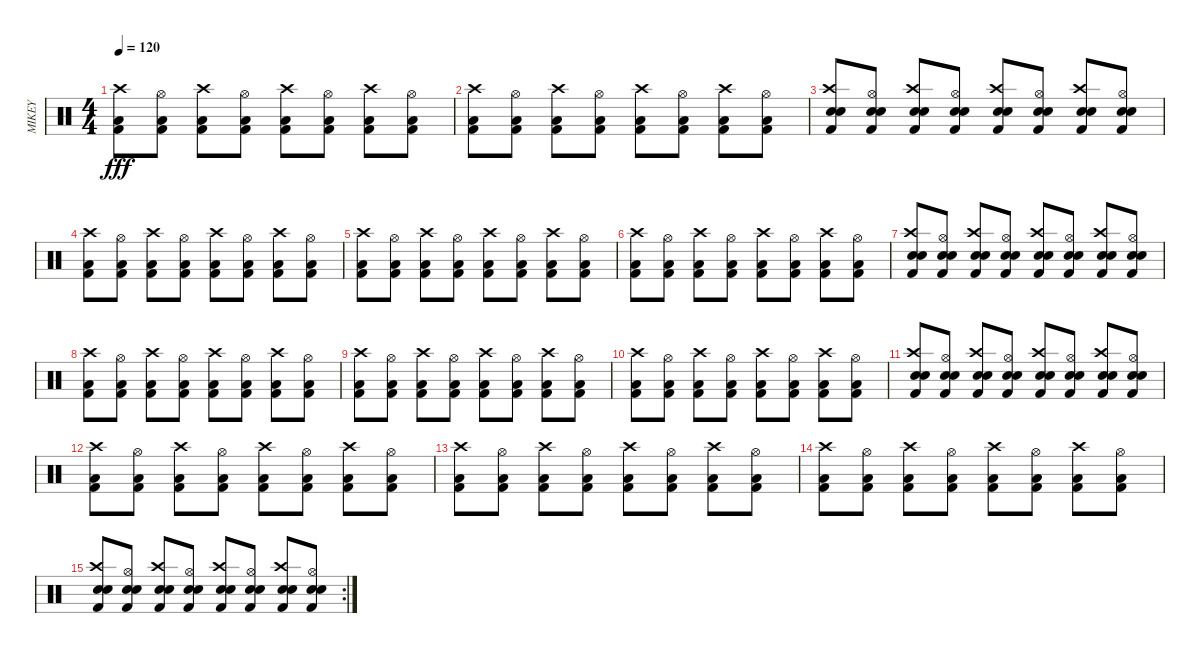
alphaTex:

\track ("MIKEY" "MIKEY") {instrument percussion}
\staff {score}
\articulation defaults
\ts (4 4)
\tempo 120
\clef neutral
\ks c
("Low Floor Tom (hit)" "Kick (hit) 2" "Crash high (hit)").8{dy fff} ("Low Floor Tom (hit)" "Hi-Hat (open)" "Kick (hit) 2").8 ("Low Floor Tom (hit)" "Kick (hit) 2" "Crash high (hit)").8 ("Low Floor Tom (hit)" "Hi-Hat (open)" "Kick (hit) 2").8 ("Low Floor Tom (hit)" "Kick (hit) 2" "Crash high (hit)").8 ("Low Floor Tom (hit)" "Hi-Hat (open)" "Kick (hit) 2").8 ("Low Floor Tom (hit)" "Kick (hit) 2" "Crash high (hit)").8 ("Low Floor Tom (hit)" "Hi-Hat (open)" "Kick (hit) 2").8 |
("Low Floor Tom (hit)" "Kick (hit) 2" "Crash high (hit)").8 ("Low Floor Tom (hit)" "Hi-Hat (open)" "Kick (hit) 2").8 ("Low Floor Tom (hit)" "Kick (hit) 2" "Crash high (hit)").8 ("Low Floor Tom (hit)" "Hi-Hat (open)" "Kick (hit) 2").8 ("Low Floor Tom (hit)" "Kick (hit) 2" "Crash high (hit)").8 ("Low Floor Tom (hit)" "Hi-Hat (open)" "Kick (hit) 2").8 ("Low Floor Tom (hit)" "Kick (hit) 2" "Crash high (hit)").8 ("Low Floor Tom (hit)" "Hi-Hat (open)" "Kick (hit) 2").8 |
("Electric Snare (hit)" "Kick (hit) 2" "Electric Snare (hit)" "Crash high (hit)").8 ("Electric Snare (hit)" "Kick (hit) 2" "Hi-Hat (open)" "Electric Snare (hit)").8 ("Electric Snare (hit)" "Kick (hit) 2" "Electric Snare (hit)" "Crash high (hit)").8 ("Electric Snare (hit)" "Kick (hit) 2" "Hi-Hat (open)" "Electric Snare (hit)").8 ("Electric Snare (hit)" "Kick (hit) 2" "Electric Snare (hit)" "Crash high (hit)").8 ("Electric Snare (hit)" "Kick (hit) 2" "Hi-Hat (open)" "Electric Snare (hit)").8 ("Electric Snare (hit)" "Kick (hit) 2" "Electric Snare (hit)" "Crash high (hit)").8 ("Electric Snare (hit)" "Kick (hit) 2" "Hi-Hat (open)" "Electric Snare (hit)").8 |
("Low Floor Tom (hit)" "Kick (hit) 2" "Crash high (hit)").8 ("Low Floor Tom (hit)" "Hi-Hat (open)" "Kick (hit) 2").8 ("Low Floor Tom (hit)" "Kick (hit) 2" "Crash high (hit)").8 ("Low Floor Tom (hit)" "Hi-Hat (open)" "Kick (hit) 2").8 ("Low Floor Tom (hit)" "Kick (hit) 2" "Crash high (hit)").8 ("Low Floor Tom (hit)" "Hi-Hat (open)" "Kick (hit) 2").8 ("Low Floor Tom (hit)" "Kick (hit) 2" "Crash high (hit)").8 ("Low Floor Tom (hit)" "Hi-Hat (open)" "Kick (hit) 2").8 |
("Low Floor Tom (hit)" "Kick (hit) 2" "Crash high (hit)").8 ("Low Floor Tom (hit)" "Hi-Hat (open)" "Kick (hit) 2").8 ("Low Floor Tom (hit)" "Kick (hit) 2" "Crash high (hit)").8 ("Low Floor Tom (hit)" "Hi-Hat (open)" "Kick (hit) 2").8 ("Low Floor Tom (hit)" "Kick (hit) 2" "Crash high (hit)").8 ("Low Floor Tom (hit)" "Hi-Hat (open)" "Kick (hit) 2").8 ("Low Floor Tom (hit)" "Kick (hit) 2" "Crash high (hit)").8 ("Low Floor Tom (hit)" "Hi-Hat (open)" "Kick (hit) 2").8 |
("Low Floor Tom (hit)" "Kick (hit) 2" "Crash high (hit)").8 ("Low Floor Tom (hit)" "Hi-Hat (open)" "Kick (hit) 2").8 ("Low Floor Tom (hit)" "Kick (hit) 2" "Crash high (hit)").8 ("Low Floor Tom (hit)" "Hi-Hat (open)" "Kick (hit) 2").8 ("Low Floor Tom (hit)" "Kick (hit) 2" "Crash high (hit)").8 ("Low Floor Tom (hit)" "Hi-Hat (open)" "Kick (hit) 2").8 ("Low Floor Tom (hit)" "Kick (hit) 2" "Crash high (hit)").8 ("Low Floor Tom (hit)" "Hi-Hat (open)" "Kick (hit) 2").8 |
("Electric Snare (hit)" "Kick (hit) 2" "Electric Snare (hit)" "Crash high (hit)").8 ("Electric Snare (hit)" "Kick (hit) 2" "Hi-Hat (open)" "Electric Snare (hit)").8 ("Electric Snare (hit)" "Kick (hit) 2" "Electric Snare (hit)" "Crash high (hit)").8 ("Electric Snare (hit)" "Kick (hit) 2" "Hi-Hat (open)" "Electric Snare (hit)").8 ("Electric Snare (hit)" "Kick (hit) 2" "Electric Snare (hit)" "Crash high (hit)").8 ("Electric Snare (hit)" "Kick (hit) 2" "Hi-Hat (open)" "Electric Snare (hit)").8 ("Electric Snare (hit)" "Kick (hit) 2" "Electric Snare (hit)" "Crash high (hit)").8 ("Electric Snare (hit)" "Kick (hit) 2" "Hi-Hat (open)" "Electric Snare (hit)").8 |
("Low Floor Tom (hit)" "Kick (hit) 2" "Crash high (hit)").8 ("Low Floor Tom (hit)" "Hi-Hat (open)" "Kick (hit) 2").8 ("Low Floor Tom (hit)" "Kick (hit) 2" "Crash high (hit)").8 ("Low Floor Tom (hit)" "Hi-Hat (open)" "Kick (hit) 2").8 ("Low Floor Tom (hit)" "Kick (hit) 2" "Crash high (hit)").8 ("Low Floor Tom (hit)" "Hi-Hat (open)" "Kick (hit) 2").8 ("Low Floor Tom (hit)" "Kick (hit) 2" "Crash high (hit)").8 ("Low Floor Tom (hit)" "Hi-Hat (open)" "Kick (hit) 2").8 |
("Low Floor Tom (hit)" "Kick (hit) 2" "Crash high (hit)").8 ("Low Floor Tom (hit)" "Hi-Hat (open)" "Kick (hit) 2").8 ("Low Floor Tom (hit)" "Kick (hit) 2" "Crash high (hit)").8 ("Low Floor Tom (hit)" "Hi-Hat (open)" "Kick (hit) 2").8 ("Low Floor Tom (hit)" "Kick (hit) 2" "Crash high (hit)").8 ("Low Floor Tom (hit)" "Hi-Hat (open)" "Kick (hit) 2").8 ("Low Floor Tom (hit)" "Kick (hit) 2" "Crash high (hit)").8 ("Low Floor Tom (hit)" "Hi-Hat (open)" "Kick (hit) 2").8 |
("Low Floor Tom (hit)" "Kick (hit) 2" "Crash high (hit)").8 ("Low Floor Tom (hit)" "Hi-Hat (open)" "Kick (hit) 2").8 ("Low Floor Tom (hit)" "Kick (hit) 2" "Crash high (hit)").8 ("Low Floor Tom (hit)" "Hi-Hat (open)" "Kick (hit) 2").8 ("Low Floor Tom (hit)" "Kick (hit) 2" "Crash high (hit)").8 ("Low Floor Tom (hit)" "Hi-Hat (open)" "Kick (hit) 2").8 ("Low Floor Tom (hit)" "Kick (hit) 2" "Crash high (hit)").8 ("Low Floor Tom (hit)" "Hi-Hat (open)" "Kick (hit) 2").8 |
("Electric Snare (hit)" "Kick (hit) 2" "Electric Snare (hit)" "Crash high (hit)").8 ("Electric Snare (hit)" "Kick (hit) 2" "Hi-Hat (open)" "Electric Snare (hit)").8 ("Electric Snare (hit)" "Kick (hit) 2" "Electric Snare (hit)" "Crash high (hit)").8 ("Electric Snare (hit)" "Kick (hit) 2" "Hi-Hat (open)" "Electric Snare (hit)").8 ("Electric Snare (hit)" "Kick (hit) 2" "Electric Snare (hit)" "Crash high (hit)").8 ("Electric Snare (hit)" "Kick (hit) 2" "Hi-Hat (open)" "Electric Snare (hit)").8 ("Electric Snare (hit)" "Kick (hit) 2" "Electric Snare (hit)" "Crash high (hit)").8 ("Electric Snare (hit)" "Kick (hit) 2" "Hi-Hat (open)" "Electric Snare (hit)").8 |
("Low Floor Tom (hit)" "Kick (hit) 2" "Crash high (hit)").8 ("Low Floor Tom (hit)" "Hi-Hat (open)" "Kick (hit) 2").8 ("Low Floor Tom (hit)" "Kick (hit) 2" "Crash high (hit)").8 ("Low Floor Tom (hit)" "Hi-Hat (open)" "Kick (hit) 2").8 ("Low Floor Tom (hit)" "Kick (hit) 2" "Crash high (hit)").8 ("Low Floor Tom (hit)" "Hi-Hat (open)" "Kick (hit) 2").8 ("Low Floor Tom (hit)" "Kick (hit) 2" "Crash high (hit)").8 ("Low Floor Tom (hit)" "Hi-Hat (open)" "Kick (hit) 2").8 |
("Low Floor Tom (hit)" "Kick (hit) 2" "Crash high (hit)").8 ("Low Floor Tom (hit)" "Hi-Hat (open)" "Kick (hit) 2").8 ("Low Floor Tom (hit)" "Kick (hit) 2" "Crash high (hit)").8 ("Low Floor Tom (hit)" "Hi-Hat (open)" "Kick (hit) 2").8 ("Low Floor Tom (hit)" "Kick (hit) 2" "Crash high (hit)").8 ("Low Floor Tom (hit)" "Hi-Hat (open)" "Kick (hit) 2").8 ("Low Floor Tom (hit)" "Kick (hit) 2" "Crash high (hit)").8 ("Low Floor Tom (hit)" "Hi-Hat (open)" "Kick (hit) 2").8 |
("Low Floor Tom (hit)" "Kick (hit) 2" "Crash high (hit)").8 ("Low Floor Tom (hit)" "Hi-Hat (open)" "Kick (hit) 2").8 ("Low Floor Tom (hit)" "Kick (hit) 2" "Crash high (hit)").8 ("Low Floor Tom (hit)" "Hi-Hat (open)" "Kick (hit) 2").8 ("Low Floor Tom (hit)" "Kick (hit) 2" "Crash high (hit)").8 ("Low Floor Tom (hit)" "Hi-Hat (open)" "Kick (hit) 2").8 ("Low Floor Tom (hit)" "Kick (hit) 2" "Crash high (hit)").8 ("Low Floor Tom (hit)" "Hi-Hat (open)" "Kick (hit) 2").8 |
\rc 2
("Electric Snare (hit)" "Kick (hit) 2" "Electric Snare (hit)" "Crash high (hit)").8 ("Electric Snare (hit)" "Kick (hit) 2" "Hi-Hat (open)" "Electric Snare (hit)").8 ("Electric Snare (hit)" "Kick (hit) 2" "Electric Snare (hit)" "Crash high (hit)").8 ("Electric Snare (hit)" "Kick (hit) 2" "Hi-Hat (open)" "Electric Snare (hit)").8 ("Electric Snare (hit)" "Kick (hit) 2" "Electric Snare (hit)" "Crash high (hit)").8 ("Electric Snare (hit)" "Kick (hit) 2" "Hi-Hat (open)" "Electric Snare (hit)").8 ("Electric Snare (hit)" "Kick (hit) 2" "Electric Snare (hit)" "Crash high (hit)").8 ("Electric Snare (hit)" "Kick (hit) 2" "Hi-Hat (open)" "Electric Snare (hit)").8
